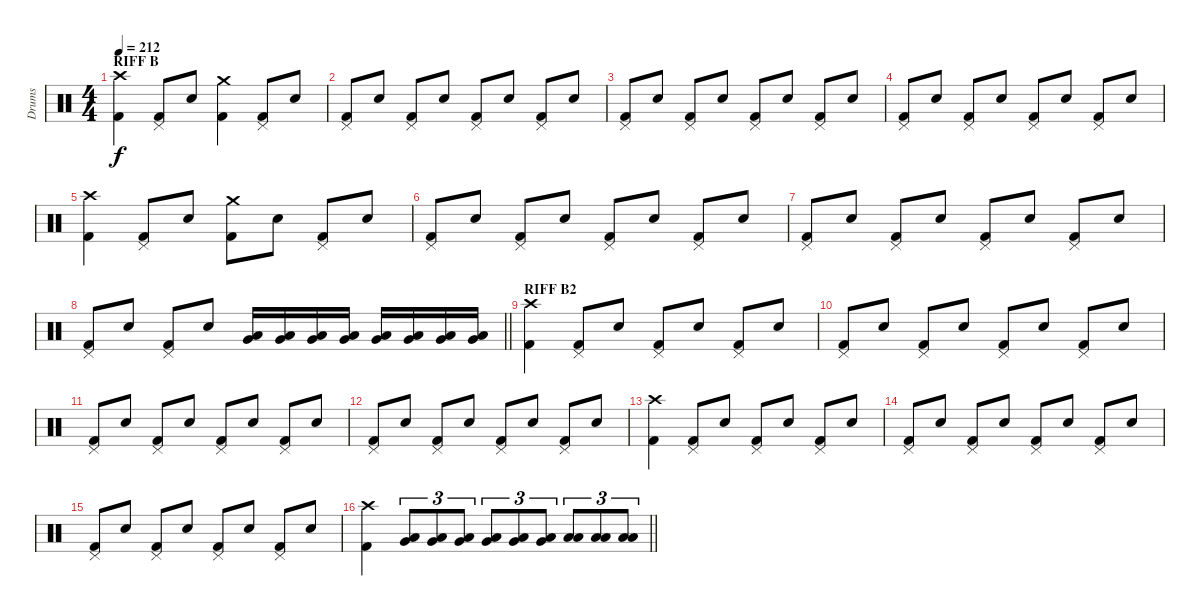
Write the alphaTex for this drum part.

\track ("Drums" "Drums") {instrument percussion}
\staff {score}
\articulation defaults
\ts (4 4)
\section ("" "RIFF B")
\tempo 212
\clef neutral
\ks c
("Crash high (hit)" "Kick (hit) 2").4{dy f} ("Pedal Hi-Hat (hit)" "Kick (hit) 2").8 "Snare (hit) 2".8 ("Crash medium (hit)" "Kick (hit) 2").4 ("Pedal Hi-Hat (hit)" "Kick (hit) 2").8 "Snare (hit) 2".8 |
("Pedal Hi-Hat (hit)" "Kick (hit) 2").8 "Snare (hit) 2".8 ("Pedal Hi-Hat (hit)" "Kick (hit) 2").8 "Snare (hit) 2".8 ("Pedal Hi-Hat (hit)" "Kick (hit) 2").8 "Snare (hit) 2".8 ("Pedal Hi-Hat (hit)" "Kick (hit) 2").8 "Snare (hit) 2".8 |
("Pedal Hi-Hat (hit)" "Kick (hit) 2").8 "Snare (hit) 2".8 ("Pedal Hi-Hat (hit)" "Kick (hit) 2").8 "Snare (hit) 2".8 ("Pedal Hi-Hat (hit)" "Kick (hit) 2").8 "Snare (hit) 2".8 ("Pedal Hi-Hat (hit)" "Kick (hit) 2").8 "Snare (hit) 2".8 |
("Pedal Hi-Hat (hit)" "Kick (hit) 2").8 "Snare (hit) 2".8 ("Pedal Hi-Hat (hit)" "Kick (hit) 2").8 "Snare (hit) 2".8 ("Pedal Hi-Hat (hit)" "Kick (hit) 2").8 "Snare (hit) 2".8 ("Pedal Hi-Hat (hit)" "Kick (hit) 2").8 "Snare (hit) 2".8 |
("Crash high (hit)" "Kick (hit) 2").4 ("Pedal Hi-Hat (hit)" "Kick (hit) 2").8 "Snare (hit) 2".8 ("Crash medium (hit)" "Kick (hit) 2").8 "Snare (hit) 2".8 ("Pedal Hi-Hat (hit)" "Kick (hit) 2").8 "Snare (hit) 2".8 |
("Pedal Hi-Hat (hit)" "Kick (hit) 2").8 "Snare (hit) 2".8 ("Pedal Hi-Hat (hit)" "Kick (hit) 2").8 "Snare (hit) 2".8 ("Pedal Hi-Hat (hit)" "Kick (hit) 2").8 "Snare (hit) 2".8 ("Pedal Hi-Hat (hit)" "Kick (hit) 2").8 "Snare (hit) 2".8 |
("Pedal Hi-Hat (hit)" "Kick (hit) 2").8 "Snare (hit) 2".8 ("Pedal Hi-Hat (hit)" "Kick (hit) 2").8 "Snare (hit) 2".8 ("Pedal Hi-Hat (hit)" "Kick (hit) 2").8 "Snare (hit) 2".8 ("Pedal Hi-Hat (hit)" "Kick (hit) 2").8 "Snare (hit) 2".8 |
\barLineRight lightlight
("Pedal Hi-Hat (hit)" "Kick (hit) 2").8 "Snare (hit) 2".8 ("Pedal Hi-Hat (hit)" "Kick (hit) 2").8 "Snare (hit) 2".8 ("Very Low Tom (hit)" "Low Floor Tom (hit)").16 ("Very Low Tom (hit)" "Low Floor Tom (hit)").16 ("Very Low Tom (hit)" "Low Floor Tom (hit)").16 ("Very Low Tom (hit)" "Low Floor Tom (hit)").16 ("Very Low Tom (hit)" "Low Floor Tom (hit)").16 ("Very Low Tom (hit)" "Low Floor Tom (hit)").16 ("Very Low Tom (hit)" "Low Floor Tom (hit)").16 ("Very Low Tom (hit)" "Low Floor Tom (hit)").16 |
\section ("" "RIFF B2")
("Crash high (hit)" "Kick (hit) 2").4 ("Pedal Hi-Hat (hit)" "Kick (hit) 2").8 "Snare (hit) 2".8 ("Pedal Hi-Hat (hit)" "Kick (hit) 2").8 "Snare (hit) 2".8 ("Pedal Hi-Hat (hit)" "Kick (hit) 2").8 "Snare (hit) 2".8 |
("Pedal Hi-Hat (hit)" "Kick (hit) 2").8 "Snare (hit) 2".8 ("Pedal Hi-Hat (hit)" "Kick (hit) 2").8 "Snare (hit) 2".8 ("Pedal Hi-Hat (hit)" "Kick (hit) 2").8 "Snare (hit) 2".8 ("Pedal Hi-Hat (hit)" "Kick (hit) 2").8 "Snare (hit) 2".8 |
("Pedal Hi-Hat (hit)" "Kick (hit) 2").8 "Snare (hit) 2".8 ("Pedal Hi-Hat (hit)" "Kick (hit) 2").8 "Snare (hit) 2".8 ("Pedal Hi-Hat (hit)" "Kick (hit) 2").8 "Snare (hit) 2".8 ("Pedal Hi-Hat (hit)" "Kick (hit) 2").8 "Snare (hit) 2".8 |
("Pedal Hi-Hat (hit)" "Kick (hit) 2").8 "Snare (hit) 2".8 ("Pedal Hi-Hat (hit)" "Kick (hit) 2").8 "Snare (hit) 2".8 ("Pedal Hi-Hat (hit)" "Kick (hit) 2").8 "Snare (hit) 2".8 ("Pedal Hi-Hat (hit)" "Kick (hit) 2").8 "Snare (hit) 2".8 |
("Crash high (hit)" "Kick (hit) 2").4 ("Pedal Hi-Hat (hit)" "Kick (hit) 2").8 "Snare (hit) 2".8 ("Pedal Hi-Hat (hit)" "Kick (hit) 2").8 "Snare (hit) 2".8 ("Pedal Hi-Hat (hit)" "Kick (hit) 2").8 "Snare (hit) 2".8 |
("Pedal Hi-Hat (hit)" "Kick (hit) 2").8 "Snare (hit) 2".8 ("Pedal Hi-Hat (hit)" "Kick (hit) 2").8 "Snare (hit) 2".8 ("Pedal Hi-Hat (hit)" "Kick (hit) 2").8 "Snare (hit) 2".8 ("Pedal Hi-Hat (hit)" "Kick (hit) 2").8 "Snare (hit) 2".8 |
("Pedal Hi-Hat (hit)" "Kick (hit) 2").8 "Snare (hit) 2".8 ("Pedal Hi-Hat (hit)" "Kick (hit) 2").8 "Snare (hit) 2".8 ("Pedal Hi-Hat (hit)" "Kick (hit) 2").8 "Snare (hit) 2".8 ("Pedal Hi-Hat (hit)" "Kick (hit) 2").8 "Snare (hit) 2".8 |
\barLineRight lightlight
("Crash high (hit)" "Kick (hit) 2").4 ("Low Tom (hit)" "Very Low Tom (hit)").8{tu (3 2)} ("Low Tom (hit)" "Very Low Tom (hit)").8{tu (3 2)} ("Very Low Tom (hit)" "Low Floor Tom (hit)").8{tu (3 2)} ("Very Low Tom (hit)" "Low Floor Tom (hit)").8{tu (3 2)} ("Low Tom (hit)" "Very Low Tom (hit)").8{tu (3 2)} ("Very Low Tom (hit)" "Low Floor Tom (hit)").8{tu (3 2)} ("Low Floor Tom (hit)" "Low Floor Tom (hit)").8{tu (3 2)} ("Low Floor Tom (hit)" "Low Floor Tom (hit)").8{tu (3 2)} ("Low Floor Tom (hit)" "Low Floor Tom (hit)").8{tu (3 2)}
